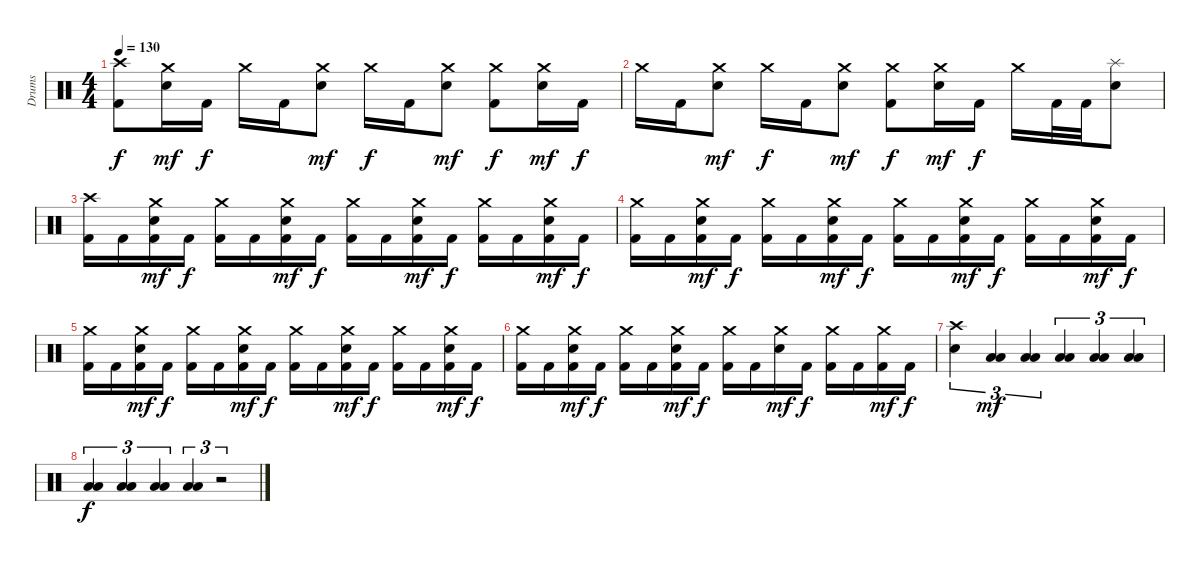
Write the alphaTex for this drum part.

\track ("Drums" "Drums") {instrument percussion}
\staff {score}
\articulation defaults
\ts (4 4)
\tempo 130
\clef neutral
\ks c
("Kick (hit) 2" "Crash high (hit)").8{dy f} ("Crash medium (hit)" "Electric Snare (hit)").16{dy mf} "Kick (hit) 2".16{dy f} "Crash medium (hit)".16 "Kick (hit) 2".16 ("Crash medium (hit)" "Electric Snare (hit)").8{dy mf} "Crash medium (hit)".16{dy f} "Kick (hit) 2".16 ("Crash medium (hit)" "Electric Snare (hit)").8{dy mf} ("Kick (hit) 2" "Crash medium (hit)").8{dy f} ("Crash medium (hit)" "Electric Snare (hit)").16{dy mf} "Kick (hit) 2".16{dy f} |
"Crash medium (hit)".16 "Kick (hit) 2".16 ("Crash medium (hit)" "Electric Snare (hit)").8{dy mf} "Crash medium (hit)".16{dy f} "Kick (hit) 2".16 ("Crash medium (hit)" "Electric Snare (hit)").8{dy mf} ("Kick (hit) 2" "Crash medium (hit)").8{dy f} ("Crash medium (hit)" "Electric Snare (hit)").16{dy mf} "Kick (hit) 2".16{dy f} "Crash medium (hit)".16 "Kick (hit) 2".32 "Kick (hit) 2".32 ("Splash (hit)" "Electric Snare (hit)").8 |
("Kick (hit) 2" "Crash high (hit)").16 "Kick (hit) 2".16 ("Kick (hit) 2" "Crash medium (hit)" "Electric Snare (hit)").16{dy mf} "Kick (hit) 2".16{dy f} ("Kick (hit) 2" "Crash medium (hit)").16 "Kick (hit) 2".16 ("Kick (hit) 2" "Crash medium (hit)" "Electric Snare (hit)").16{dy mf} "Kick (hit) 2".16{dy f} ("Kick (hit) 2" "Crash medium (hit)").16 "Kick (hit) 2".16 ("Kick (hit) 2" "Crash medium (hit)" "Electric Snare (hit)").16{dy mf} "Kick (hit) 2".16{dy f} ("Kick (hit) 2" "Crash medium (hit)").16 "Kick (hit) 2".16 ("Kick (hit) 2" "Crash medium (hit)" "Electric Snare (hit)").16{dy mf} "Kick (hit) 2".16{dy f} |
("Kick (hit) 2" "Crash medium (hit)").16 "Kick (hit) 2".16 ("Kick (hit) 2" "Crash medium (hit)" "Electric Snare (hit)").16{dy mf} "Kick (hit) 2".16{dy f} ("Kick (hit) 2" "Crash medium (hit)").16 "Kick (hit) 2".16 ("Kick (hit) 2" "Crash medium (hit)" "Electric Snare (hit)").16{dy mf} "Kick (hit) 2".16{dy f} ("Kick (hit) 2" "Crash medium (hit)").16 "Kick (hit) 2".16 ("Kick (hit) 2" "Crash medium (hit)" "Electric Snare (hit)").16{dy mf} "Kick (hit) 2".16{dy f} ("Kick (hit) 2" "Crash medium (hit)").16 "Kick (hit) 2".16 ("Kick (hit) 2" "Crash medium (hit)" "Electric Snare (hit)").16{dy mf} "Kick (hit) 2".16{dy f} |
("Kick (hit) 2" "Crash medium (hit)").16 "Kick (hit) 2".16 ("Kick (hit) 2" "Crash medium (hit)" "Electric Snare (hit)").16{dy mf} "Kick (hit) 2".16{dy f} ("Kick (hit) 2" "Crash medium (hit)").16 "Kick (hit) 2".16 ("Kick (hit) 2" "Crash medium (hit)" "Electric Snare (hit)").16{dy mf} "Kick (hit) 2".16{dy f} ("Kick (hit) 2" "Crash medium (hit)").16 "Kick (hit) 2".16 ("Kick (hit) 2" "Crash medium (hit)" "Electric Snare (hit)").16{dy mf} "Kick (hit) 2".16{dy f} ("Kick (hit) 2" "Crash medium (hit)").16 "Kick (hit) 2".16 ("Kick (hit) 2" "Crash medium (hit)" "Electric Snare (hit)").16{dy mf} "Kick (hit) 2".16{dy f} |
("Kick (hit) 2" "Crash medium (hit)").16 "Kick (hit) 2".16 ("Kick (hit) 2" "Crash medium (hit)" "Electric Snare (hit)").16{dy mf} "Kick (hit) 2".16{dy f} ("Kick (hit) 2" "Crash medium (hit)").16 "Kick (hit) 2".16 ("Kick (hit) 2" "Crash medium (hit)" "Electric Snare (hit)").16{dy mf} "Kick (hit) 2".16{dy f} ("Kick (hit) 2" "Crash medium (hit)").16 "Kick (hit) 2".16 ("Crash medium (hit)" "Electric Snare (hit)").16{dy mf} "Kick (hit) 2".16{dy f} ("Kick (hit) 2" "Crash medium (hit)").16 "Kick (hit) 2".16 ("Kick (hit) 2" "Crash medium (hit)").16{dy mf} "Kick (hit) 2".16{dy f} |
("Crash high (hit)" "Electric Snare (hit)").4{tu (3 2)} ("Low Floor Tom (hit)" "Low Tom (hit)").4{tu (3 2) dy mf} ("Low Floor Tom (hit)" "Low Tom (hit)").4{tu (3 2)} ("Low Floor Tom (hit)" "Low Tom (hit)").4{tu (3 2)} ("Low Floor Tom (hit)" "Low Tom (hit)").4{tu (3 2)} ("Low Floor Tom (hit)" "Low Tom (hit)").4{tu (3 2)} |
("Low Floor Tom (hit)" "Low Tom (hit)").4{tu (3 2) dy f} ("Low Floor Tom (hit)" "Low Tom (hit)").4{tu (3 2)} ("Low Floor Tom (hit)" "Low Tom (hit)").4{tu (3 2)} ("Low Floor Tom (hit)" "Low Tom (hit)").4{tu (3 2)} r.2{tu (3 2)}
